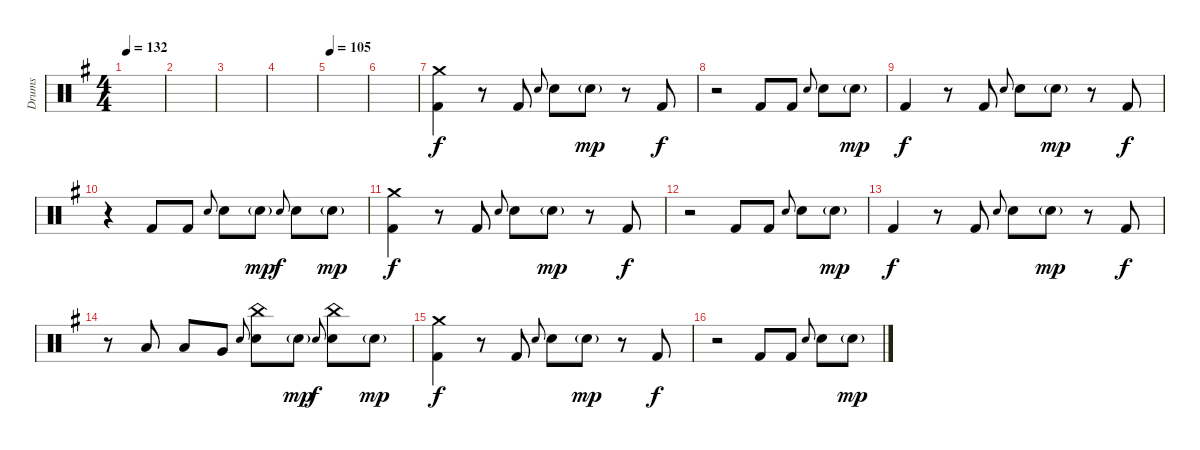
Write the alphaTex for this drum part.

\track ("Drums" "Drums") {instrument percussion}
\staff {score}
\articulation defaults
\ts (4 4)
\tempo 132
\clef neutral
\ks eminor
|
|
|
|
\tempo 105
|
|
("Crash medium (hit)" "Kick (hit) 2").4 r.8 "Kick (hit) 2".8 "Electric Snare (hit)".8{gr onbeat} "Electric Snare (hit)".8 "Electric Snare (hit)"{g}.8{dy mp} r.8 "Kick (hit) 2".8{dy f} |
r.2 "Kick (hit) 2".8 "Kick (hit) 2".8 "Electric Snare (hit)".8{gr onbeat} "Electric Snare (hit)".8 "Electric Snare (hit)"{g}.8{dy mp} |
"Kick (hit) 2".4{dy f} r.8 "Kick (hit) 2".8 "Electric Snare (hit)".8{gr onbeat} "Electric Snare (hit)".8 "Electric Snare (hit)"{g}.8{dy mp} r.8 "Kick (hit) 2".8{dy f} |
r.4 "Kick (hit) 2".8 "Kick (hit) 2".8 "Electric Snare (hit)".8{gr onbeat} "Electric Snare (hit)".8 "Electric Snare (hit)"{g}.8{dy mp} "Electric Snare (hit)".8{gr onbeat dy f} "Electric Snare (hit)".8 "Electric Snare (hit)"{g}.8{dy mp} |
("Crash medium (hit)" "Kick (hit) 2").4{dy f} r.8 "Kick (hit) 2".8 "Electric Snare (hit)".8{gr onbeat} "Electric Snare (hit)".8 "Electric Snare (hit)"{g}.8{dy mp} r.8 "Kick (hit) 2".8{dy f} |
r.2 "Kick (hit) 2".8 "Kick (hit) 2".8 "Electric Snare (hit)".8{gr onbeat} "Electric Snare (hit)".8 "Electric Snare (hit)"{g}.8{dy mp} |
"Kick (hit) 2".4{dy f} r.8 "Kick (hit) 2".8 "Electric Snare (hit)".8{gr onbeat} "Electric Snare (hit)".8 "Electric Snare (hit)"{g}.8{dy mp} r.8 "Kick (hit) 2".8{dy f} |
r.8 "Low Tom (hit)".8 "Low Tom (hit)".8 "Very Low Tom (hit)".8 "Electric Snare (hit)".8{gr onbeat} ("China (hit)" "Electric Snare (hit)").8 "Electric Snare (hit)"{g}.8{dy mp} "Electric Snare (hit)".8{gr onbeat dy f} ("China (hit)" "Electric Snare (hit)").8 "Electric Snare (hit)"{g}.8{dy mp} |
("Crash medium (hit)" "Kick (hit) 2").4{dy f} r.8 "Kick (hit) 2".8 "Electric Snare (hit)".8{gr onbeat} "Electric Snare (hit)".8 "Electric Snare (hit)"{g}.8{dy mp} r.8 "Kick (hit) 2".8{dy f} |
r.2 "Kick (hit) 2".8 "Kick (hit) 2".8 "Electric Snare (hit)".8{gr onbeat} "Electric Snare (hit)".8 "Electric Snare (hit)"{g}.8{dy mp}
